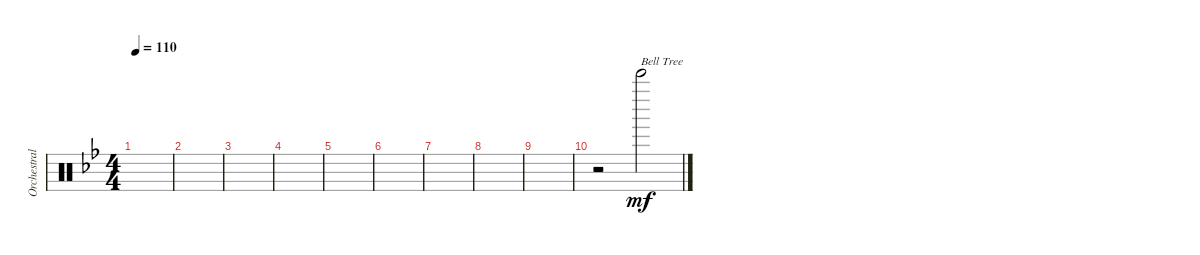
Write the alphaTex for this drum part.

\track ("Orchestral Percussion I" "Orchestral") {instrument percussion}
\staff {score}
\articulation defaults
\ts (4 4)
\tempo 110
\clef neutral
\ks gminor
|
|
|
|
|
|
|
|
|
r.2 "Bell Tree (hit)".2{txt "Bell Tree" dy mf}
